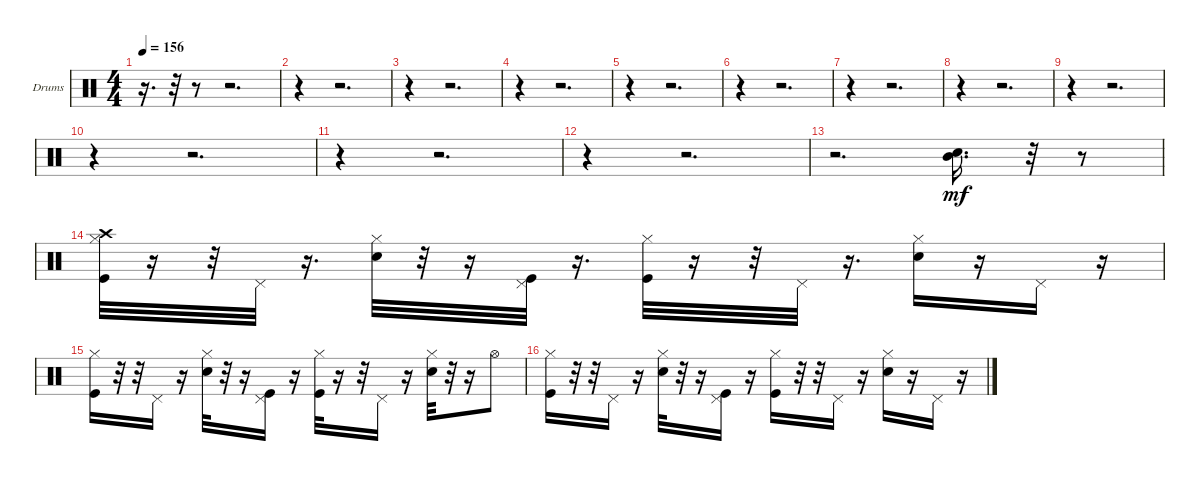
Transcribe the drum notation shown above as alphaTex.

\defaultSystemsLayout 4
\bracketExtendMode groupsimilarinstruments
\firstSystemTrackNameOrientation horizontal
\otherSystemsTrackNameOrientation horizontal
\track ("Drumkit" "Drums") {instrument percussion}
\staff {score}
\articulation defaults
\ts (4 4)
\tempo 156
\clef neutral
\ks c
r.16{d dy mf} r.32 r.8 r.2{d} |
r.4 r.2{d} |
r.4 r.2{d} |
r.4 r.2{d} |
r.4 r.2{d} |
r.4 r.2{d} |
r.4 r.2{d} |
r.4 r.2{d} |
r.4 r.2{d} |
r.4 r.2{d} |
r.4 r.2{d} |
r.4 r.2{d} |
r.2{d} ("Mid Tom (hit)" "Snare (hit) 2").16{d} r.32 r.8 |
("Kick (hit)" "Crash high (hit)" "Hi-Hat (closed)").32 r.16 r.32 "Pedal Hi-Hat (hit)".32 r.16{d} ("Snare (hit) 2" "Hi-Hat (closed)").32 r.32 r.16 ("Kick (hit)" "Pedal Hi-Hat (hit)").32 r.16{d} ("Kick (hit)" "Hi-Hat (closed)").32 r.16 r.32 "Pedal Hi-Hat (hit)".32 r.16{d} ("Snare (hit) 2" "Hi-Hat (closed)").16 r.16 "Pedal Hi-Hat (hit)".16 r.16 |
("Kick (hit)" "Hi-Hat (closed)").16 r.32 r.32 "Pedal Hi-Hat (hit)".16 r.16 ("Snare (hit) 2" "Hi-Hat (closed)").32 r.32 r.16 ("Kick (hit)" "Pedal Hi-Hat (hit)").16 r.16 ("Kick (hit)" "Hi-Hat (closed)").32 r.16 r.32 "Pedal Hi-Hat (hit)".16 r.16 ("Snare (hit) 2" "Hi-Hat (closed)").32 r.32 r.16 "Hi-Hat (open)".8 |
("Kick (hit)" "Hi-Hat (closed)").16 r.32 r.32 "Pedal Hi-Hat (hit)".16 r.16 ("Snare (hit) 2" "Hi-Hat (closed)").32 r.32 r.16 ("Kick (hit)" "Pedal Hi-Hat (hit)").16 r.16 ("Kick (hit)" "Hi-Hat (closed)").16 r.32 r.32 "Pedal Hi-Hat (hit)".16 r.16 ("Snare (hit) 2" "Hi-Hat (closed)").16 r.16 "Pedal Hi-Hat (hit)".16 r.16
